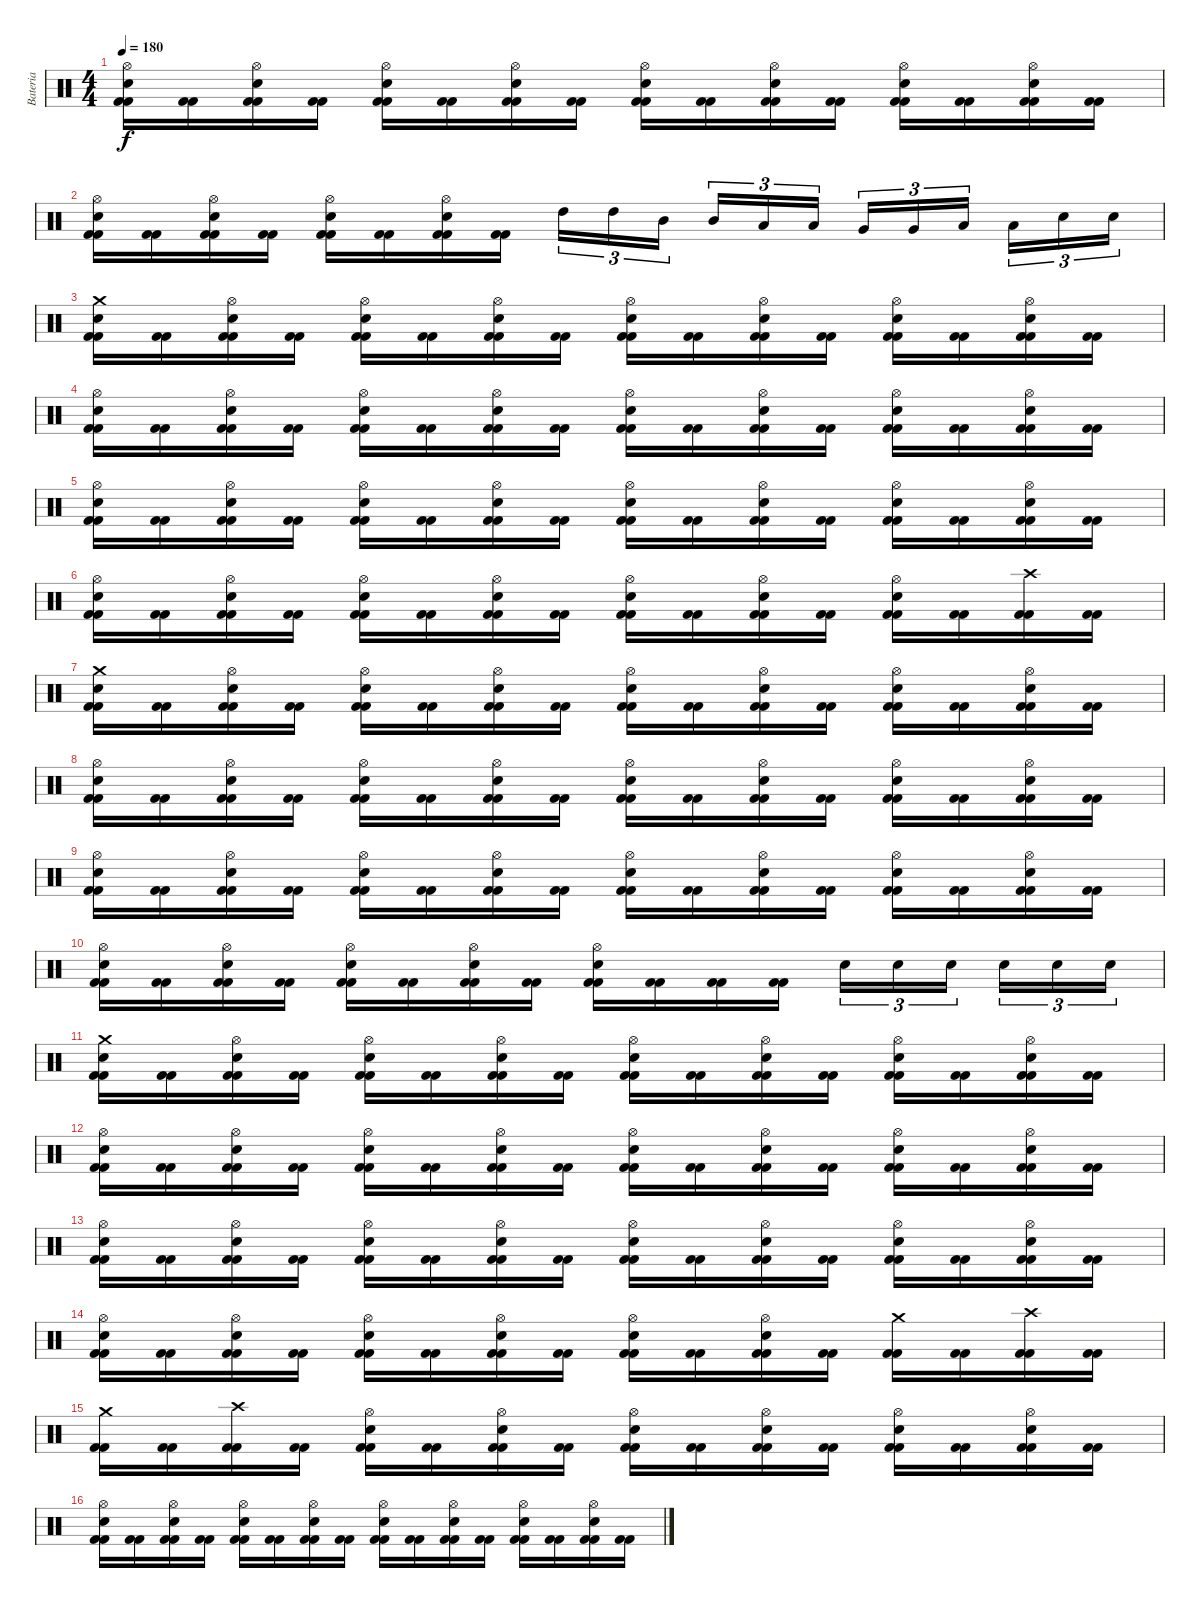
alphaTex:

\track ("Bateria" "Bateria") {instrument percussion}
\staff {score}
\articulation defaults
\ts (4 4)
\tempo 180
\clef neutral
\ks c
("Kick (hit) 2" "Kick (hit) 2" "Electric Snare (hit)" "Hi-Hat (open)").16{dy f} ("Kick (hit) 2" "Kick (hit) 2").16 ("Kick (hit) 2" "Kick (hit) 2" "Hi-Hat (open)" "Electric Snare (hit)").16 ("Kick (hit) 2" "Kick (hit) 2").16 ("Kick (hit) 2" "Kick (hit) 2" "Electric Snare (hit)" "Hi-Hat (open)").16 ("Kick (hit) 2" "Kick (hit) 2").16 ("Kick (hit) 2" "Kick (hit) 2" "Hi-Hat (open)" "Electric Snare (hit)").16 ("Kick (hit) 2" "Kick (hit) 2").16 ("Kick (hit) 2" "Kick (hit) 2" "Electric Snare (hit)" "Hi-Hat (open)").16 ("Kick (hit) 2" "Kick (hit) 2").16 ("Kick (hit) 2" "Kick (hit) 2" "Hi-Hat (open)" "Electric Snare (hit)").16 ("Kick (hit) 2" "Kick (hit) 2").16 ("Kick (hit) 2" "Kick (hit) 2" "Electric Snare (hit)" "Hi-Hat (open)").16 ("Kick (hit) 2" "Kick (hit) 2").16 ("Kick (hit) 2" "Kick (hit) 2" "Hi-Hat (open)" "Electric Snare (hit)").16 ("Kick (hit) 2" "Kick (hit) 2").16 |
("Kick (hit) 2" "Kick (hit) 2" "Electric Snare (hit)" "Hi-Hat (open)").16 ("Kick (hit) 2" "Kick (hit) 2").16 ("Kick (hit) 2" "Kick (hit) 2" "Hi-Hat (open)" "Electric Snare (hit)").16 ("Kick (hit) 2" "Kick (hit) 2").16 ("Kick (hit) 2" "Kick (hit) 2" "Electric Snare (hit)" "Hi-Hat (open)").16 ("Kick (hit) 2" "Kick (hit) 2").16 ("Kick (hit) 2" "Kick (hit) 2" "Hi-Hat (open)" "Electric Snare (hit)").16 ("Kick (hit) 2" "Kick (hit) 2").16 "High Tom (hit)".16{tu (3 2)} "High Tom (hit)".16{tu (3 2)} "Mid Tom (hit)".16{tu (3 2)} "Mid Tom (hit)".16{tu (3 2)} "Low Tom (hit)".16{tu (3 2)} "Low Tom (hit)".16{tu (3 2)} "Very Low Tom (hit)".16{tu (3 2)} "Very Low Tom (hit)".16{tu (3 2)} "Low Floor Tom (hit)".16{tu (3 2)} "Low Floor Tom (hit)".16{tu (3 2)} "Electric Snare (hit)".16{tu (3 2)} "Electric Snare (hit)".16{tu (3 2)} |
("Kick (hit) 2" "Kick (hit) 2" "Electric Snare (hit)" "Crash medium (hit)").16 ("Kick (hit) 2" "Kick (hit) 2").16 ("Kick (hit) 2" "Kick (hit) 2" "Hi-Hat (open)" "Electric Snare (hit)").16 ("Kick (hit) 2" "Kick (hit) 2").16 ("Kick (hit) 2" "Kick (hit) 2" "Electric Snare (hit)" "Hi-Hat (open)").16 ("Kick (hit) 2" "Kick (hit) 2").16 ("Kick (hit) 2" "Kick (hit) 2" "Hi-Hat (open)" "Electric Snare (hit)").16 ("Kick (hit) 2" "Kick (hit) 2").16 ("Kick (hit) 2" "Kick (hit) 2" "Electric Snare (hit)" "Hi-Hat (open)").16 ("Kick (hit) 2" "Kick (hit) 2").16 ("Kick (hit) 2" "Kick (hit) 2" "Hi-Hat (open)" "Electric Snare (hit)").16 ("Kick (hit) 2" "Kick (hit) 2").16 ("Kick (hit) 2" "Kick (hit) 2" "Electric Snare (hit)" "Hi-Hat (open)").16 ("Kick (hit) 2" "Kick (hit) 2").16 ("Kick (hit) 2" "Kick (hit) 2" "Hi-Hat (open)" "Electric Snare (hit)").16 ("Kick (hit) 2" "Kick (hit) 2").16 |
("Kick (hit) 2" "Kick (hit) 2" "Electric Snare (hit)" "Hi-Hat (open)").16 ("Kick (hit) 2" "Kick (hit) 2").16 ("Kick (hit) 2" "Kick (hit) 2" "Hi-Hat (open)" "Electric Snare (hit)").16 ("Kick (hit) 2" "Kick (hit) 2").16 ("Kick (hit) 2" "Kick (hit) 2" "Electric Snare (hit)" "Hi-Hat (open)").16 ("Kick (hit) 2" "Kick (hit) 2").16 ("Kick (hit) 2" "Kick (hit) 2" "Hi-Hat (open)" "Electric Snare (hit)").16 ("Kick (hit) 2" "Kick (hit) 2").16 ("Kick (hit) 2" "Kick (hit) 2" "Electric Snare (hit)" "Hi-Hat (open)").16 ("Kick (hit) 2" "Kick (hit) 2").16 ("Kick (hit) 2" "Kick (hit) 2" "Hi-Hat (open)" "Electric Snare (hit)").16 ("Kick (hit) 2" "Kick (hit) 2").16 ("Kick (hit) 2" "Kick (hit) 2" "Electric Snare (hit)" "Hi-Hat (open)").16 ("Kick (hit) 2" "Kick (hit) 2").16 ("Kick (hit) 2" "Kick (hit) 2" "Hi-Hat (open)" "Electric Snare (hit)").16 ("Kick (hit) 2" "Kick (hit) 2").16 |
("Kick (hit) 2" "Kick (hit) 2" "Electric Snare (hit)" "Hi-Hat (open)").16 ("Kick (hit) 2" "Kick (hit) 2").16 ("Kick (hit) 2" "Kick (hit) 2" "Hi-Hat (open)" "Electric Snare (hit)").16 ("Kick (hit) 2" "Kick (hit) 2").16 ("Kick (hit) 2" "Kick (hit) 2" "Electric Snare (hit)" "Hi-Hat (open)").16 ("Kick (hit) 2" "Kick (hit) 2").16 ("Kick (hit) 2" "Kick (hit) 2" "Hi-Hat (open)" "Electric Snare (hit)").16 ("Kick (hit) 2" "Kick (hit) 2").16 ("Kick (hit) 2" "Kick (hit) 2" "Electric Snare (hit)" "Hi-Hat (open)").16 ("Kick (hit) 2" "Kick (hit) 2").16 ("Kick (hit) 2" "Kick (hit) 2" "Hi-Hat (open)" "Electric Snare (hit)").16 ("Kick (hit) 2" "Kick (hit) 2").16 ("Kick (hit) 2" "Kick (hit) 2" "Electric Snare (hit)" "Hi-Hat (open)").16 ("Kick (hit) 2" "Kick (hit) 2").16 ("Kick (hit) 2" "Kick (hit) 2" "Hi-Hat (open)" "Electric Snare (hit)").16 ("Kick (hit) 2" "Kick (hit) 2").16 |
("Kick (hit) 2" "Kick (hit) 2" "Electric Snare (hit)" "Hi-Hat (open)").16 ("Kick (hit) 2" "Kick (hit) 2").16 ("Kick (hit) 2" "Kick (hit) 2" "Hi-Hat (open)" "Electric Snare (hit)").16 ("Kick (hit) 2" "Kick (hit) 2").16 ("Kick (hit) 2" "Kick (hit) 2" "Electric Snare (hit)" "Hi-Hat (open)").16 ("Kick (hit) 2" "Kick (hit) 2").16 ("Kick (hit) 2" "Kick (hit) 2" "Hi-Hat (open)" "Electric Snare (hit)").16 ("Kick (hit) 2" "Kick (hit) 2").16 ("Kick (hit) 2" "Kick (hit) 2" "Electric Snare (hit)" "Hi-Hat (open)").16 ("Kick (hit) 2" "Kick (hit) 2").16 ("Kick (hit) 2" "Kick (hit) 2" "Hi-Hat (open)" "Electric Snare (hit)").16 ("Kick (hit) 2" "Kick (hit) 2").16 ("Kick (hit) 2" "Kick (hit) 2" "Electric Snare (hit)" "Hi-Hat (open)").16 ("Kick (hit) 2" "Kick (hit) 2").16 ("Kick (hit) 2" "Kick (hit) 2" "Crash high (hit)").16 ("Kick (hit) 2" "Kick (hit) 2").16 |
("Kick (hit) 2" "Kick (hit) 2" "Electric Snare (hit)" "Crash medium (hit)").16 ("Kick (hit) 2" "Kick (hit) 2").16 ("Kick (hit) 2" "Kick (hit) 2" "Hi-Hat (open)" "Electric Snare (hit)").16 ("Kick (hit) 2" "Kick (hit) 2").16 ("Kick (hit) 2" "Kick (hit) 2" "Electric Snare (hit)" "Hi-Hat (open)").16 ("Kick (hit) 2" "Kick (hit) 2").16 ("Kick (hit) 2" "Kick (hit) 2" "Hi-Hat (open)" "Electric Snare (hit)").16 ("Kick (hit) 2" "Kick (hit) 2").16 ("Kick (hit) 2" "Kick (hit) 2" "Electric Snare (hit)" "Hi-Hat (open)").16 ("Kick (hit) 2" "Kick (hit) 2").16 ("Kick (hit) 2" "Kick (hit) 2" "Hi-Hat (open)" "Electric Snare (hit)").16 ("Kick (hit) 2" "Kick (hit) 2").16 ("Kick (hit) 2" "Kick (hit) 2" "Electric Snare (hit)" "Hi-Hat (open)").16 ("Kick (hit) 2" "Kick (hit) 2").16 ("Kick (hit) 2" "Kick (hit) 2" "Hi-Hat (open)" "Electric Snare (hit)").16 ("Kick (hit) 2" "Kick (hit) 2").16 |
("Kick (hit) 2" "Kick (hit) 2" "Electric Snare (hit)" "Hi-Hat (open)").16 ("Kick (hit) 2" "Kick (hit) 2").16 ("Kick (hit) 2" "Kick (hit) 2" "Hi-Hat (open)" "Electric Snare (hit)").16 ("Kick (hit) 2" "Kick (hit) 2").16 ("Kick (hit) 2" "Kick (hit) 2" "Electric Snare (hit)" "Hi-Hat (open)").16 ("Kick (hit) 2" "Kick (hit) 2").16 ("Kick (hit) 2" "Kick (hit) 2" "Hi-Hat (open)" "Electric Snare (hit)").16 ("Kick (hit) 2" "Kick (hit) 2").16 ("Kick (hit) 2" "Kick (hit) 2" "Electric Snare (hit)" "Hi-Hat (open)").16 ("Kick (hit) 2" "Kick (hit) 2").16 ("Kick (hit) 2" "Kick (hit) 2" "Hi-Hat (open)" "Electric Snare (hit)").16 ("Kick (hit) 2" "Kick (hit) 2").16 ("Kick (hit) 2" "Kick (hit) 2" "Electric Snare (hit)" "Hi-Hat (open)").16 ("Kick (hit) 2" "Kick (hit) 2").16 ("Kick (hit) 2" "Kick (hit) 2" "Hi-Hat (open)" "Electric Snare (hit)").16 ("Kick (hit) 2" "Kick (hit) 2").16 |
("Kick (hit) 2" "Kick (hit) 2" "Electric Snare (hit)" "Hi-Hat (open)").16 ("Kick (hit) 2" "Kick (hit) 2").16 ("Kick (hit) 2" "Kick (hit) 2" "Hi-Hat (open)" "Electric Snare (hit)").16 ("Kick (hit) 2" "Kick (hit) 2").16 ("Kick (hit) 2" "Kick (hit) 2" "Electric Snare (hit)" "Hi-Hat (open)").16 ("Kick (hit) 2" "Kick (hit) 2").16 ("Kick (hit) 2" "Kick (hit) 2" "Hi-Hat (open)" "Electric Snare (hit)").16 ("Kick (hit) 2" "Kick (hit) 2").16 ("Kick (hit) 2" "Kick (hit) 2" "Electric Snare (hit)" "Hi-Hat (open)").16 ("Kick (hit) 2" "Kick (hit) 2").16 ("Kick (hit) 2" "Kick (hit) 2" "Hi-Hat (open)" "Electric Snare (hit)").16 ("Kick (hit) 2" "Kick (hit) 2").16 ("Kick (hit) 2" "Kick (hit) 2" "Electric Snare (hit)" "Hi-Hat (open)").16 ("Kick (hit) 2" "Kick (hit) 2").16 ("Kick (hit) 2" "Kick (hit) 2" "Hi-Hat (open)" "Electric Snare (hit)").16 ("Kick (hit) 2" "Kick (hit) 2").16 |
("Kick (hit) 2" "Kick (hit) 2" "Electric Snare (hit)" "Hi-Hat (open)").16 ("Kick (hit) 2" "Kick (hit) 2").16 ("Kick (hit) 2" "Kick (hit) 2" "Hi-Hat (open)" "Electric Snare (hit)").16 ("Kick (hit) 2" "Kick (hit) 2").16 ("Kick (hit) 2" "Kick (hit) 2" "Electric Snare (hit)" "Hi-Hat (open)").16 ("Kick (hit) 2" "Kick (hit) 2").16 ("Kick (hit) 2" "Kick (hit) 2" "Hi-Hat (open)" "Electric Snare (hit)").16 ("Kick (hit) 2" "Kick (hit) 2").16 ("Kick (hit) 2" "Kick (hit) 2" "Hi-Hat (open)" "Electric Snare (hit)").16 ("Kick (hit) 2" "Kick (hit) 2").16 ("Kick (hit) 2" "Kick (hit) 2").16 ("Kick (hit) 2" "Kick (hit) 2").16 "Electric Snare (hit)".16{tu (3 2)} "Electric Snare (hit)".16{tu (3 2)} "Electric Snare (hit)".16{tu (3 2)} "Electric Snare (hit)".16{tu (3 2)} "Electric Snare (hit)".16{tu (3 2)} "Electric Snare (hit)".16{tu (3 2)} |
("Kick (hit) 2" "Kick (hit) 2" "Electric Snare (hit)" "Crash medium (hit)").16 ("Kick (hit) 2" "Kick (hit) 2").16 ("Kick (hit) 2" "Kick (hit) 2" "Hi-Hat (open)" "Electric Snare (hit)").16 ("Kick (hit) 2" "Kick (hit) 2").16 ("Kick (hit) 2" "Kick (hit) 2" "Electric Snare (hit)" "Hi-Hat (open)").16 ("Kick (hit) 2" "Kick (hit) 2").16 ("Kick (hit) 2" "Kick (hit) 2" "Hi-Hat (open)" "Electric Snare (hit)").16 ("Kick (hit) 2" "Kick (hit) 2").16 ("Kick (hit) 2" "Kick (hit) 2" "Electric Snare (hit)" "Hi-Hat (open)").16 ("Kick (hit) 2" "Kick (hit) 2").16 ("Kick (hit) 2" "Kick (hit) 2" "Hi-Hat (open)" "Electric Snare (hit)").16 ("Kick (hit) 2" "Kick (hit) 2").16 ("Kick (hit) 2" "Kick (hit) 2" "Electric Snare (hit)" "Hi-Hat (open)").16 ("Kick (hit) 2" "Kick (hit) 2").16 ("Kick (hit) 2" "Kick (hit) 2" "Hi-Hat (open)" "Electric Snare (hit)").16 ("Kick (hit) 2" "Kick (hit) 2").16 |
("Kick (hit) 2" "Kick (hit) 2" "Electric Snare (hit)" "Hi-Hat (open)").16 ("Kick (hit) 2" "Kick (hit) 2").16 ("Kick (hit) 2" "Kick (hit) 2" "Hi-Hat (open)" "Electric Snare (hit)").16 ("Kick (hit) 2" "Kick (hit) 2").16 ("Kick (hit) 2" "Kick (hit) 2" "Electric Snare (hit)" "Hi-Hat (open)").16 ("Kick (hit) 2" "Kick (hit) 2").16 ("Kick (hit) 2" "Kick (hit) 2" "Hi-Hat (open)" "Electric Snare (hit)").16 ("Kick (hit) 2" "Kick (hit) 2").16 ("Kick (hit) 2" "Kick (hit) 2" "Electric Snare (hit)" "Hi-Hat (open)").16 ("Kick (hit) 2" "Kick (hit) 2").16 ("Kick (hit) 2" "Kick (hit) 2" "Hi-Hat (open)" "Electric Snare (hit)").16 ("Kick (hit) 2" "Kick (hit) 2").16 ("Kick (hit) 2" "Kick (hit) 2" "Electric Snare (hit)" "Hi-Hat (open)").16 ("Kick (hit) 2" "Kick (hit) 2").16 ("Kick (hit) 2" "Kick (hit) 2" "Hi-Hat (open)" "Electric Snare (hit)").16 ("Kick (hit) 2" "Kick (hit) 2").16 |
("Kick (hit) 2" "Kick (hit) 2" "Electric Snare (hit)" "Hi-Hat (open)").16 ("Kick (hit) 2" "Kick (hit) 2").16 ("Kick (hit) 2" "Kick (hit) 2" "Hi-Hat (open)" "Electric Snare (hit)").16 ("Kick (hit) 2" "Kick (hit) 2").16 ("Kick (hit) 2" "Kick (hit) 2" "Electric Snare (hit)" "Hi-Hat (open)").16 ("Kick (hit) 2" "Kick (hit) 2").16 ("Kick (hit) 2" "Kick (hit) 2" "Hi-Hat (open)" "Electric Snare (hit)").16 ("Kick (hit) 2" "Kick (hit) 2").16 ("Kick (hit) 2" "Kick (hit) 2" "Electric Snare (hit)" "Hi-Hat (open)").16 ("Kick (hit) 2" "Kick (hit) 2").16 ("Kick (hit) 2" "Kick (hit) 2" "Hi-Hat (open)" "Electric Snare (hit)").16 ("Kick (hit) 2" "Kick (hit) 2").16 ("Kick (hit) 2" "Kick (hit) 2" "Electric Snare (hit)" "Hi-Hat (open)").16 ("Kick (hit) 2" "Kick (hit) 2").16 ("Kick (hit) 2" "Kick (hit) 2" "Hi-Hat (open)" "Electric Snare (hit)").16 ("Kick (hit) 2" "Kick (hit) 2").16 |
("Kick (hit) 2" "Kick (hit) 2" "Electric Snare (hit)" "Hi-Hat (open)").16 ("Kick (hit) 2" "Kick (hit) 2").16 ("Kick (hit) 2" "Kick (hit) 2" "Hi-Hat (open)" "Electric Snare (hit)").16 ("Kick (hit) 2" "Kick (hit) 2").16 ("Kick (hit) 2" "Kick (hit) 2" "Electric Snare (hit)" "Hi-Hat (open)").16 ("Kick (hit) 2" "Kick (hit) 2").16 ("Kick (hit) 2" "Kick (hit) 2" "Hi-Hat (open)" "Electric Snare (hit)").16 ("Kick (hit) 2" "Kick (hit) 2").16 ("Kick (hit) 2" "Kick (hit) 2" "Electric Snare (hit)" "Hi-Hat (open)").16 ("Kick (hit) 2" "Kick (hit) 2").16 ("Kick (hit) 2" "Kick (hit) 2" "Hi-Hat (open)" "Electric Snare (hit)").16 ("Kick (hit) 2" "Kick (hit) 2").16 ("Kick (hit) 2" "Kick (hit) 2" "Crash medium (hit)").16 ("Kick (hit) 2" "Kick (hit) 2").16 ("Kick (hit) 2" "Kick (hit) 2" "Crash high (hit)").16 ("Kick (hit) 2" "Kick (hit) 2").16 |
("Kick (hit) 2" "Kick (hit) 2" "Crash medium (hit)").16 ("Kick (hit) 2" "Kick (hit) 2").16 ("Kick (hit) 2" "Kick (hit) 2" "Crash high (hit)").16 ("Kick (hit) 2" "Kick (hit) 2").16 ("Kick (hit) 2" "Kick (hit) 2" "Electric Snare (hit)" "Hi-Hat (open)").16 ("Kick (hit) 2" "Kick (hit) 2").16 ("Kick (hit) 2" "Kick (hit) 2" "Hi-Hat (open)" "Electric Snare (hit)").16 ("Kick (hit) 2" "Kick (hit) 2").16 ("Kick (hit) 2" "Kick (hit) 2" "Electric Snare (hit)" "Hi-Hat (open)").16 ("Kick (hit) 2" "Kick (hit) 2").16 ("Kick (hit) 2" "Kick (hit) 2" "Hi-Hat (open)" "Electric Snare (hit)").16 ("Kick (hit) 2" "Kick (hit) 2").16 ("Kick (hit) 2" "Kick (hit) 2" "Electric Snare (hit)" "Hi-Hat (open)").16 ("Kick (hit) 2" "Kick (hit) 2").16 ("Kick (hit) 2" "Kick (hit) 2" "Hi-Hat (open)" "Electric Snare (hit)").16 ("Kick (hit) 2" "Kick (hit) 2").16 |
("Kick (hit) 2" "Kick (hit) 2" "Electric Snare (hit)" "Hi-Hat (open)").16 ("Kick (hit) 2" "Kick (hit) 2").16 ("Kick (hit) 2" "Kick (hit) 2" "Hi-Hat (open)" "Electric Snare (hit)").16 ("Kick (hit) 2" "Kick (hit) 2").16 ("Kick (hit) 2" "Kick (hit) 2" "Electric Snare (hit)" "Hi-Hat (open)").16 ("Kick (hit) 2" "Kick (hit) 2").16 ("Kick (hit) 2" "Kick (hit) 2" "Hi-Hat (open)" "Electric Snare (hit)").16 ("Kick (hit) 2" "Kick (hit) 2").16 ("Kick (hit) 2" "Kick (hit) 2" "Electric Snare (hit)" "Hi-Hat (open)").16 ("Kick (hit) 2" "Kick (hit) 2").16 ("Kick (hit) 2" "Kick (hit) 2" "Hi-Hat (open)" "Electric Snare (hit)").16 ("Kick (hit) 2" "Kick (hit) 2").16 ("Kick (hit) 2" "Kick (hit) 2" "Electric Snare (hit)" "Hi-Hat (open)").16 ("Kick (hit) 2" "Kick (hit) 2").16 ("Kick (hit) 2" "Kick (hit) 2" "Hi-Hat (open)" "Electric Snare (hit)").16 ("Kick (hit) 2" "Kick (hit) 2").16
